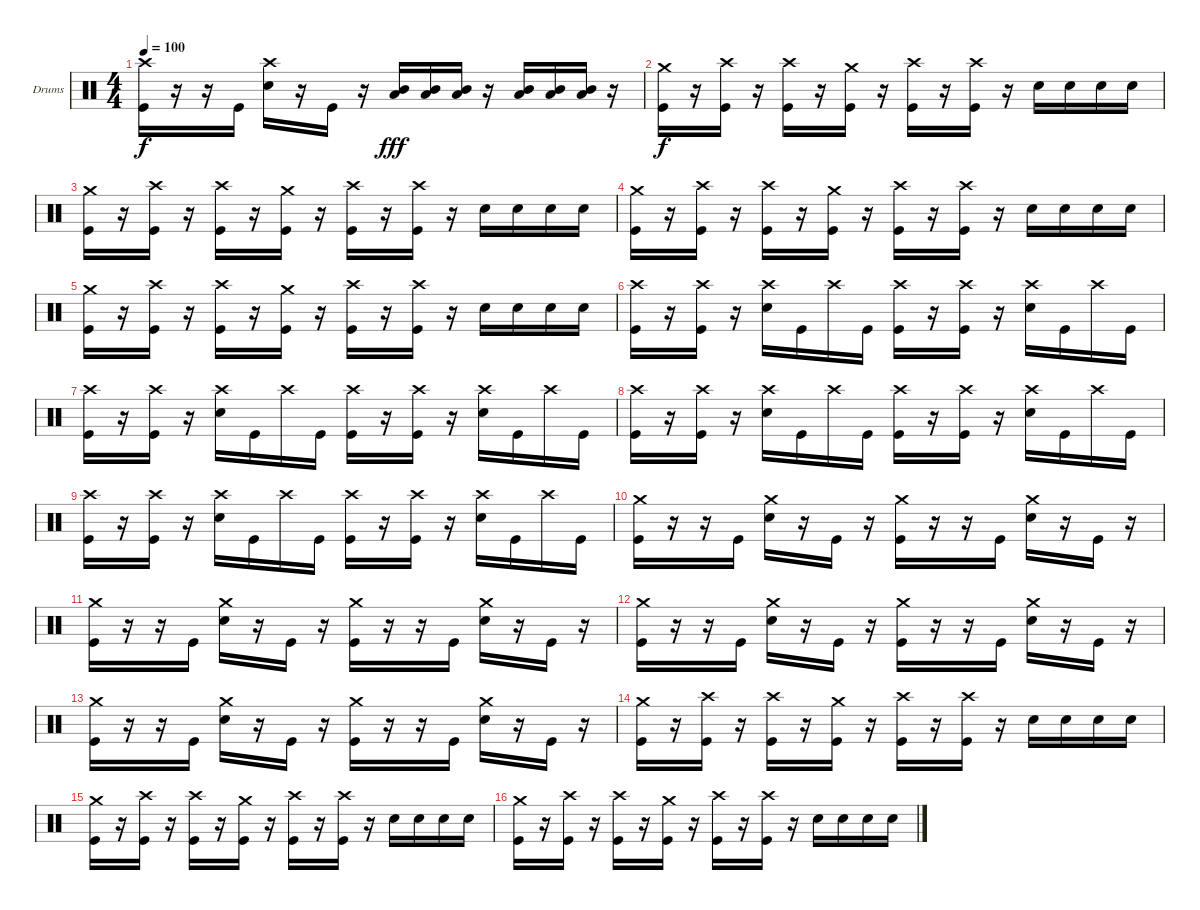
\bracketExtendMode groupsimilarinstruments
\firstSystemTrackNameOrientation horizontal
\otherSystemsTrackNameOrientation horizontal
\track ("Lars Ulrich (Drum)" "Drums") {instrument percussion}
\staff {score}
\articulation defaults
\ts (4 4)
\tempo 100
\clef neutral
\scale
0.333333
\ks c
("Crash high (hit)" "Kick (hit)").16{dy f} r.16 r.16 "Kick (hit)".16 ("Crash high (hit)" "Snare (hit) 2").16 r.16 "Kick (hit)".16 r.16 ("Low Tom (hit)" "Mid Tom (hit)").16{dy fff} ("Low Tom (hit)" "Mid Tom (hit)").16 ("Low Tom (hit)" "Mid Tom (hit)").16 r.16 ("Low Tom (hit)" "Mid Tom (hit)").16 ("Low Tom (hit)" "Mid Tom (hit)").16 ("Low Tom (hit)" "Mid Tom (hit)").16 r.16 |
\scale
0.333333 ("Crash medium (hit)" "Kick (hit)").16{dy f} r.16 ("Crash high (hit)" "Kick (hit)").16 r.16 ("Crash high (hit)" "Kick (hit)").16 r.16 ("Crash medium (hit)" "Kick (hit)").16 r.16 ("Crash high (hit)" "Kick (hit)").16 r.16 ("Crash high (hit)" "Kick (hit)").16 r.16 "Snare (hit) 2".16 "Snare (hit) 2".16 "Snare (hit) 2".16 "Snare (hit) 2".16 |
\scale
0.333333 ("Crash medium (hit)" "Kick (hit)").16 r.16 ("Crash high (hit)" "Kick (hit)").16 r.16 ("Crash high (hit)" "Kick (hit)").16 r.16 ("Crash medium (hit)" "Kick (hit)").16 r.16 ("Crash high (hit)" "Kick (hit)").16 r.16 ("Crash high (hit)" "Kick (hit)").16 r.16 "Snare (hit) 2".16 "Snare (hit) 2".16 "Snare (hit) 2".16 "Snare (hit) 2".16 |
\scale
0.333333 ("Crash medium (hit)" "Kick (hit)").16 r.16 ("Crash high (hit)" "Kick (hit)").16 r.16 ("Crash high (hit)" "Kick (hit)").16 r.16 ("Crash medium (hit)" "Kick (hit)").16 r.16 ("Crash high (hit)" "Kick (hit)").16 r.16 ("Crash high (hit)" "Kick (hit)").16 r.16 "Snare (hit) 2".16 "Snare (hit) 2".16 "Snare (hit) 2".16 "Snare (hit) 2".16 |
\scale
0.333333 ("Crash medium (hit)" "Kick (hit)").16 r.16 ("Crash high (hit)" "Kick (hit)").16 r.16 ("Crash high (hit)" "Kick (hit)").16 r.16 ("Crash medium (hit)" "Kick (hit)").16 r.16 ("Crash high (hit)" "Kick (hit)").16 r.16 ("Crash high (hit)" "Kick (hit)").16 r.16 "Snare (hit) 2".16 "Snare (hit) 2".16 "Snare (hit) 2".16 "Snare (hit) 2".16 |
\scale
0.333333 ("Crash high (hit)" "Kick (hit)").16 r.16 ("Crash high (hit)" "Kick (hit)").16 r.16 ("Crash high (hit)" "Snare (hit) 2").16 "Kick (hit)".16 "Crash high (hit)".16 "Kick (hit)".16 ("Crash high (hit)" "Kick (hit)").16 r.16 ("Crash high (hit)" "Kick (hit)").16 r.16 ("Crash high (hit)" "Snare (hit) 2").16 "Kick (hit)".16 "Crash high (hit)".16 "Kick (hit)".16 |
\scale
0.333333 ("Crash high (hit)" "Kick (hit)").16 r.16 ("Crash high (hit)" "Kick (hit)").16 r.16 ("Crash high (hit)" "Snare (hit) 2").16 "Kick (hit)".16 "Crash high (hit)".16 "Kick (hit)".16 ("Crash high (hit)" "Kick (hit)").16 r.16 ("Crash high (hit)" "Kick (hit)").16 r.16 ("Crash high (hit)" "Snare (hit) 2").16 "Kick (hit)".16 "Crash high (hit)".16 "Kick (hit)".16 |
\scale
0.333333 ("Crash high (hit)" "Kick (hit)").16 r.16 ("Crash high (hit)" "Kick (hit)").16 r.16 ("Crash high (hit)" "Snare (hit) 2").16 "Kick (hit)".16 "Crash high (hit)".16 "Kick (hit)".16 ("Crash high (hit)" "Kick (hit)").16 r.16 ("Crash high (hit)" "Kick (hit)").16 r.16 ("Crash high (hit)" "Snare (hit) 2").16 "Kick (hit)".16 "Crash high (hit)".16 "Kick (hit)".16 |
\scale
0.333333 ("Crash high (hit)" "Kick (hit)").16 r.16 ("Crash high (hit)" "Kick (hit)").16 r.16 ("Crash high (hit)" "Snare (hit) 2").16 "Kick (hit)".16 "Crash high (hit)".16 "Kick (hit)".16 ("Crash high (hit)" "Kick (hit)").16 r.16 ("Crash high (hit)" "Kick (hit)").16 r.16 ("Crash high (hit)" "Snare (hit) 2").16 "Kick (hit)".16 "Crash high (hit)".16 "Kick (hit)".16 |
\scale
0.333333 ("Crash medium (hit)" "Kick (hit)").16 r.16 r.16 "Kick (hit)".16 ("Crash medium (hit)" "Snare (hit) 2").16 r.16 "Kick (hit)".16 r.16 ("Crash medium (hit)" "Kick (hit)").16 r.16 r.16 "Kick (hit)".16 ("Crash medium (hit)" "Snare (hit) 2").16 r.16 "Kick (hit)".16 r.16 |
\scale
0.333333 ("Crash medium (hit)" "Kick (hit)").16 r.16 r.16 "Kick (hit)".16 ("Crash medium (hit)" "Snare (hit) 2").16 r.16 "Kick (hit)".16 r.16 ("Crash medium (hit)" "Kick (hit)").16 r.16 r.16 "Kick (hit)".16 ("Crash medium (hit)" "Snare (hit) 2").16 r.16 "Kick (hit)".16 r.16 |
\scale
0.333333 ("Crash medium (hit)" "Kick (hit)").16 r.16 r.16 "Kick (hit)".16 ("Crash medium (hit)" "Snare (hit) 2").16 r.16 "Kick (hit)".16 r.16 ("Crash medium (hit)" "Kick (hit)").16 r.16 r.16 "Kick (hit)".16 ("Crash medium (hit)" "Snare (hit) 2").16 r.16 "Kick (hit)".16 r.16 |
\scale
0.333333 ("Crash medium (hit)" "Kick (hit)").16 r.16 r.16 "Kick (hit)".16 ("Crash medium (hit)" "Snare (hit) 2").16 r.16 "Kick (hit)".16 r.16 ("Crash medium (hit)" "Kick (hit)").16 r.16 r.16 "Kick (hit)".16 ("Crash medium (hit)" "Snare (hit) 2").16 r.16 "Kick (hit)".16 r.16 |
\scale
0.333333 ("Crash medium (hit)" "Kick (hit)").16 r.16 ("Crash high (hit)" "Kick (hit)").16 r.16 ("Crash high (hit)" "Kick (hit)").16 r.16 ("Crash medium (hit)" "Kick (hit)").16 r.16 ("Crash high (hit)" "Kick (hit)").16 r.16 ("Crash high (hit)" "Kick (hit)").16 r.16 "Snare (hit) 2".16 "Snare (hit) 2".16 "Snare (hit) 2".16 "Snare (hit) 2".16 |
\scale
0.333333 ("Crash medium (hit)" "Kick (hit)").16 r.16 ("Crash high (hit)" "Kick (hit)").16 r.16 ("Crash high (hit)" "Kick (hit)").16 r.16 ("Crash medium (hit)" "Kick (hit)").16 r.16 ("Crash high (hit)" "Kick (hit)").16 r.16 ("Crash high (hit)" "Kick (hit)").16 r.16 "Snare (hit) 2".16 "Snare (hit) 2".16 "Snare (hit) 2".16 "Snare (hit) 2".16 |
\scale
0.333333 ("Crash medium (hit)" "Kick (hit)").16 r.16 ("Crash high (hit)" "Kick (hit)").16 r.16 ("Crash high (hit)" "Kick (hit)").16 r.16 ("Crash medium (hit)" "Kick (hit)").16 r.16 ("Crash high (hit)" "Kick (hit)").16 r.16 ("Crash high (hit)" "Kick (hit)").16 r.16 "Snare (hit) 2".16 "Snare (hit) 2".16 "Snare (hit) 2".16 "Snare (hit) 2".16
